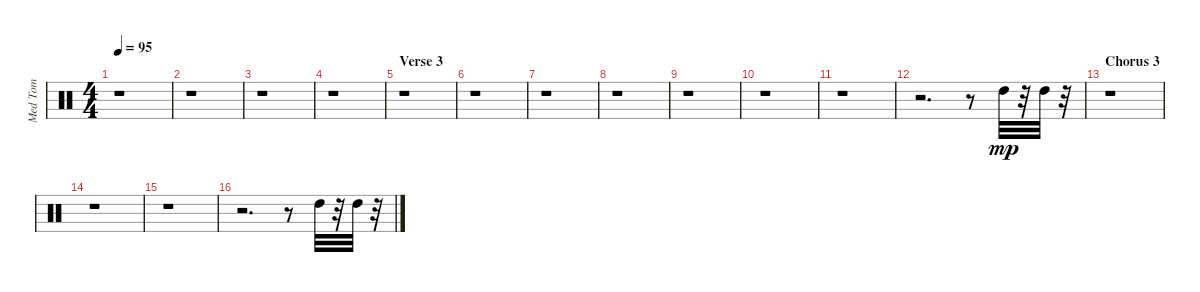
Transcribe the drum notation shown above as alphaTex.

\track ("Med Tom" "Med Tom") {instrument percussion}
\staff {score}
\articulation defaults
\ts (4 4)
\tempo 95
\clef neutral
\ks c
r.1{dy mp} |
r.1 |
r.1 |
r.1 |
\section ("" "Verse 3")
r.1 |
r.1 |
r.1 |
r.1 |
r.1 |
r.1 |
r.1 |
r.2{d} r.8 "High Tom (hit)".32 r.32 "High Tom (hit)".32 r.32 |
\section ("" "Chorus 3")
r.1 |
r.1 |
r.1 |
r.2{d} r.8 "High Tom (hit)".32 r.32 "High Tom (hit)".32 r.32
